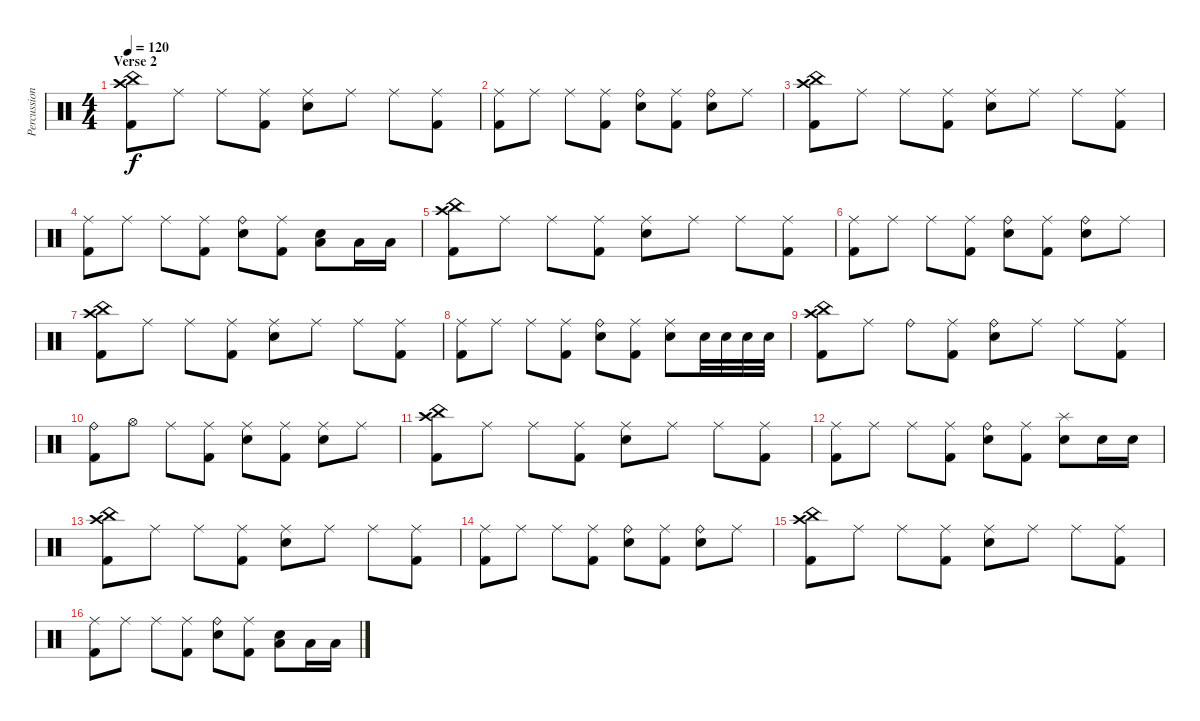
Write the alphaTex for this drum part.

\track ("Percussion" "Percussion") {instrument percussion}
\staff {score}
\articulation defaults
\ts (4 4)
\section ("" "Verse 2")
\tempo 120
\clef neutral
\ks c
("China (hit)" "Crash high (hit)" "Kick (hit) 2").8{dy f} "Ride (middle)".8 "Ride (middle)".8 ("Ride (middle)" "Kick (hit) 2").8 ("Ride (middle)" "Electric Snare (hit)").8 "Ride (middle)".8 "Ride (middle)".8 ("Ride (middle)" "Kick (hit) 2").8 |
("Ride (middle)" "Kick (hit) 2").8 "Ride (middle)".8 "Ride (middle)".8 ("Ride (middle)" "Kick (hit) 2").8 ("Ride (bell)" "Electric Snare (hit)").8 ("Ride (middle)" "Kick (hit) 2").8 ("Ride (bell)" "Electric Snare (hit)").8 "Ride (middle)".8 |
("China (hit)" "Crash high (hit)" "Kick (hit) 2").8 "Ride (middle)".8 "Ride (middle)".8 ("Ride (middle)" "Kick (hit) 2").8 ("Ride (middle)" "Electric Snare (hit)").8 "Ride (middle)".8 "Ride (middle)".8 ("Ride (middle)" "Kick (hit) 2").8 |
("Ride (middle)" "Kick (hit) 2").8 "Ride (middle)".8 "Ride (middle)".8 ("Ride (middle)" "Kick (hit) 2").8 ("Ride (bell)" "Electric Snare (hit)").8 ("Ride (middle)" "Kick (hit) 2").8 ("Electric Snare (hit)" "Low Floor Tom (hit)").8 "Low Tom (hit)".16 "Low Floor Tom (hit)".16 |
("China (hit)" "Crash high (hit)" "Kick (hit) 2").8 "Ride (middle)".8 "Ride (middle)".8 ("Ride (middle)" "Kick (hit) 2").8 ("Ride (middle)" "Electric Snare (hit)").8 "Ride (middle)".8 "Ride (middle)".8 ("Ride (middle)" "Kick (hit) 2").8 |
("Ride (middle)" "Kick (hit) 2").8 "Ride (middle)".8 "Ride (middle)".8 ("Ride (middle)" "Kick (hit) 2").8 ("Ride (bell)" "Electric Snare (hit)").8 ("Ride (middle)" "Kick (hit) 2").8 ("Ride (bell)" "Electric Snare (hit)").8 "Ride (middle)".8 |
("China (hit)" "Crash high (hit)" "Kick (hit) 2").8 "Ride (middle)".8 "Ride (middle)".8 ("Ride (middle)" "Kick (hit) 2").8 ("Ride (middle)" "Electric Snare (hit)").8 "Ride (middle)".8 "Ride (middle)".8 ("Ride (middle)" "Kick (hit) 2").8 |
("Ride (middle)" "Kick (hit) 2").8 "Ride (middle)".8 "Ride (middle)".8 ("Ride (middle)" "Kick (hit) 2").8 ("Ride (bell)" "Electric Snare (hit)").8 ("Ride (middle)" "Kick (hit) 2").8 ("Ride (middle)" "Electric Snare (hit)").8 "Electric Snare (hit)".32 "Electric Snare (hit)".32 "Electric Snare (hit)".32 "Electric Snare (hit)".32 |
("China (hit)" "Crash high (hit)" "Kick (hit) 2").8 "Ride (middle)".8 "Ride (bell)".8 ("Ride (middle)" "Kick (hit) 2").8 ("Ride (bell)" "Electric Snare (hit)").8 "Ride (middle)".8 "Ride (middle)".8 ("Ride (middle)" "Kick (hit) 2").8 |
("Ride (bell)" "Kick (hit) 2").8 "Hi-Hat (open)".8 "Ride (middle)".8 ("Ride (middle)" "Kick (hit) 2").8 ("Ride (middle)" "Electric Snare (hit)").8 ("Ride (middle)" "Kick (hit) 2").8 ("Ride (middle)" "Electric Snare (hit)").8 "Ride (middle)".8 |
("China (hit)" "Crash high (hit)" "Kick (hit) 2").8 "Ride (middle)".8 "Ride (middle)".8 ("Ride (middle)" "Kick (hit) 2").8 ("Ride (middle)" "Electric Snare (hit)").8 "Ride (middle)".8 "Ride (middle)".8 ("Ride (middle)" "Kick (hit) 2").8 |
("Ride (middle)" "Kick (hit) 2").8 "Ride (middle)".8 "Ride (middle)".8 ("Ride (middle)" "Kick (hit) 2").8 ("Ride (bell)" "Electric Snare (hit)").8 ("Ride (middle)" "Kick (hit) 2").8 ("Splash (hit)" "Electric Snare (hit)").8 "Electric Snare (hit)".16 "Electric Snare (hit)".16 |
("China (hit)" "Crash high (hit)" "Kick (hit) 2").8 "Ride (middle)".8 "Ride (middle)".8 ("Ride (middle)" "Kick (hit) 2").8 ("Ride (middle)" "Electric Snare (hit)").8 "Ride (middle)".8 "Ride (middle)".8 ("Ride (middle)" "Kick (hit) 2").8 |
("Ride (middle)" "Kick (hit) 2").8 "Ride (middle)".8 "Ride (middle)".8 ("Ride (middle)" "Kick (hit) 2").8 ("Ride (bell)" "Electric Snare (hit)").8 ("Ride (middle)" "Kick (hit) 2").8 ("Ride (bell)" "Electric Snare (hit)").8 "Ride (middle)".8 |
("China (hit)" "Crash high (hit)" "Kick (hit) 2").8 "Ride (middle)".8 "Ride (middle)".8 ("Ride (middle)" "Kick (hit) 2").8 ("Ride (middle)" "Electric Snare (hit)").8 "Ride (middle)".8 "Ride (middle)".8 ("Ride (middle)" "Kick (hit) 2").8 |
("Ride (middle)" "Kick (hit) 2").8 "Ride (middle)".8 "Ride (middle)".8 ("Ride (middle)" "Kick (hit) 2").8 ("Ride (bell)" "Electric Snare (hit)").8 ("Ride (middle)" "Kick (hit) 2").8 ("Electric Snare (hit)" "Low Floor Tom (hit)").8 "Low Tom (hit)".16 "Low Floor Tom (hit)".16
